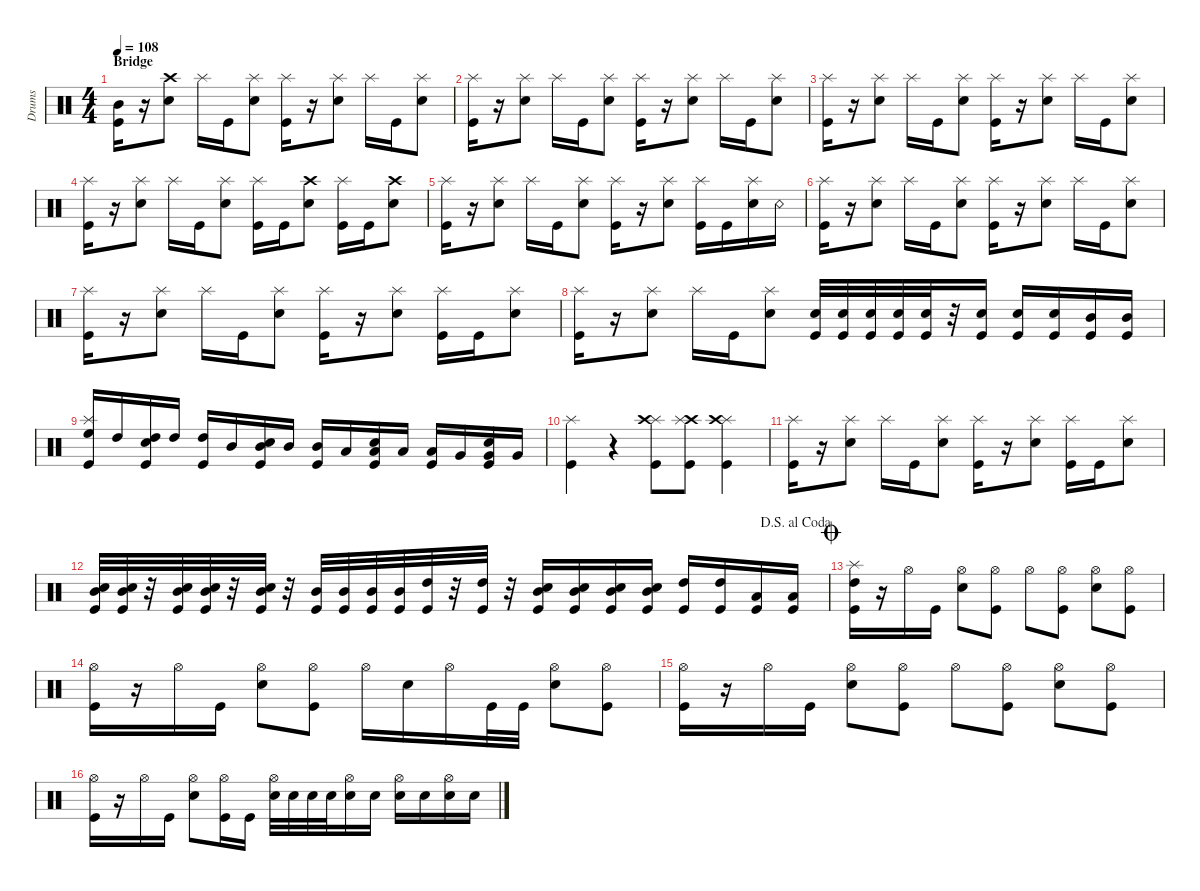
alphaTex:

\defaultSystemsLayout 4
\hideDynamics
\bracketExtendMode groupsimilarinstruments
\otherSystemsTrackNameOrientation horizontal
\chordDiagramsInScore
\track ("Drumkit" "Drums") {instrument percussion}
\staff {score}
\articulation defaults
\ts (4 4)
\section ("" "Bridge")
\tempo 108
\clef neutral
\ks c
("Kick (hit)" "Mid Tom (hit)").16{dy mf} r.16 ("Snare (hit) 2" "Crash high (hit)").8 "Splash (hit)".16 "Kick (hit)".16 ("Snare (hit) 2" "Splash (hit)").8 ("Kick (hit)" "Splash (hit)").16 r.16 ("Snare (hit) 2" "Splash (hit)").8 "Splash (hit)".16 "Kick (hit)".16 ("Snare (hit) 2" "Splash (hit)").8 |
("Kick (hit)" "Splash (hit)").16 r.16 ("Snare (hit) 2" "Splash (hit)").8 "Splash (hit)".16 "Kick (hit)".16 ("Snare (hit) 2" "Splash (hit)").8 ("Kick (hit)" "Splash (hit)").16 r.16 ("Snare (hit) 2" "Splash (hit)").8 "Splash (hit)".16 "Kick (hit)".16 ("Snare (hit) 2" "Splash (hit)").8 |
("Kick (hit)" "Splash (hit)").16 r.16 ("Snare (hit) 2" "Splash (hit)").8 "Splash (hit)".16 "Kick (hit)".16 ("Snare (hit) 2" "Splash (hit)").8 ("Kick (hit)" "Splash (hit)").16 r.16 ("Snare (hit) 2" "Splash (hit)").8 "Splash (hit)".16 "Kick (hit)".16 ("Snare (hit) 2" "Splash (hit)").8 |
("Kick (hit)" "Splash (hit)").16 r.16 ("Snare (hit) 2" "Splash (hit)").8 "Splash (hit)".16 "Kick (hit)".16 ("Snare (hit) 2" "Splash (hit)").8 ("Kick (hit)" "Splash (hit)").16 "Kick (hit)".16 ("Snare (hit) 2" "Crash high (hit)").8 ("Splash (hit)" "Kick (hit)").16 "Kick (hit)".16 ("Snare (hit) 2" "Crash high (hit)").8 |
("Kick (hit)" "Splash (hit)").16 r.16 ("Snare (hit) 2" "Splash (hit)").8 "Splash (hit)".16 "Kick (hit)".16 ("Snare (hit) 2" "Splash (hit)").8 ("Kick (hit)" "Splash (hit)").16 r.16 ("Snare (hit) 2" "Splash (hit)").8 ("Splash (hit)" "Kick (hit)").16 "Kick (hit)".16 ("Snare (hit) 2" "Splash (hit)").16 "Snare (rim shot)".16 |
("Kick (hit)" "Splash (hit)").16 r.16 ("Snare (hit) 2" "Splash (hit)").8 "Splash (hit)".16 "Kick (hit)".16 ("Snare (hit) 2" "Splash (hit)").8 ("Kick (hit)" "Splash (hit)").16 r.16 ("Snare (hit) 2" "Splash (hit)").8 "Splash (hit)".16 "Kick (hit)".16 ("Snare (hit) 2" "Splash (hit)").8 |
("Kick (hit)" "Splash (hit)").16 r.16 ("Snare (hit) 2" "Splash (hit)").8 "Splash (hit)".16 "Kick (hit)".16 ("Snare (hit) 2" "Splash (hit)").8 ("Kick (hit)" "Splash (hit)").16 r.16 ("Snare (hit) 2" "Splash (hit)").8 ("Splash (hit)" "Kick (hit)").16 "Kick (hit)".16 ("Snare (hit) 2" "Splash (hit)").8 |
("Kick (hit)" "Splash (hit)").16 r.16 ("Snare (hit) 2" "Splash (hit)").8 "Splash (hit)".16 "Kick (hit)".16 ("Snare (hit) 2" "Splash (hit)").8 ("Kick (hit)" "Snare (hit) 2").32 ("Kick (hit)" "Snare (hit) 2").32 ("Kick (hit)" "Snare (hit) 2").32 ("Kick (hit)" "Snare (hit) 2").32 ("Kick (hit)" "Snare (hit) 2").32 r.32 ("Kick (hit)" "Snare (hit) 2").16 ("Kick (hit)" "Snare (hit) 2").16 ("Kick (hit)" "Snare (hit) 2").16 ("Kick (hit)" "Mid Tom (hit)").16 ("Kick (hit)" "Mid Tom (hit)").16 |
("High Floor Tom (hit)" "Kick (hit)" "Splash (hit)").16 "High Tom (hit)".16 ("High Tom (hit)" "Kick (hit)" "Snare (hit) 2").16 "High Tom (hit)".16 ("High Tom (hit)" "Kick (hit)").16 "Mid Tom (hit)".16 ("Mid Tom (hit)" "Kick (hit)" "Snare (hit) 2").16 "Mid Tom (hit)".16 ("Mid Tom (hit)" "Kick (hit)").16 "Low Tom (hit)".16 ("Low Tom (hit)" "Kick (hit)" "Snare (hit) 2").16 "Low Tom (hit)".16 ("Low Tom (hit)" "Kick (hit)").16 "Very Low Tom (hit)".16 ("Very Low Tom (hit)" "Kick (hit)" "Snare (hit) 2").16 "Very Low Tom (hit)".16 |
("Splash (hit)" "Kick (hit)").4 r.4 ("Kick (hit)" "Splash (hit)" "Crash high (hit)").8 ("Kick (hit)" "Crash high (hit)" "Splash (hit)").8 ("Kick (hit)" "Splash (hit)" "Crash high (hit)").4 |
("Kick (hit)" "Splash (hit)").16 r.16 ("Snare (hit) 2" "Splash (hit)").8 "Splash (hit)".16 "Kick (hit)".16 ("Snare (hit) 2" "Splash (hit)").8 ("Kick (hit)" "Splash (hit)").16 r.16 ("Snare (hit) 2" "Splash (hit)").8 ("Splash (hit)" "Kick (hit)").16 "Kick (hit)".16 ("Snare (hit) 2" "Splash (hit)").8 |
\jump dalsegnoalcoda
("Kick (hit)" "Mid Tom (hit)" "Snare (hit) 2").32 ("Kick (hit)" "Mid Tom (hit)" "Snare (hit) 2").32 r.32 ("Kick (hit)" "Mid Tom (hit)" "Snare (hit) 2").32 ("Kick (hit)" "Mid Tom (hit)" "Snare (hit) 2").32 r.32 ("Kick (hit)" "Mid Tom (hit)" "Snare (hit) 2").32 r.32 ("Kick (hit)" "Mid Tom (hit)").32 ("Kick (hit)" "Mid Tom (hit)").32 ("Kick (hit)" "Mid Tom (hit)").32 ("Kick (hit)" "Mid Tom (hit)").32 ("Kick (hit)" "High Tom (hit)").32 r.32 ("Kick (hit)" "High Tom (hit)").32 r.32 ("Kick (hit)" "Mid Tom (hit)" "Snare (hit) 2").16 ("Kick (hit)" "Mid Tom (hit)" "Snare (hit) 2").16 ("Kick (hit)" "Mid Tom (hit)" "Snare (hit) 2").16 ("Kick (hit)" "Mid Tom (hit)" "Snare (hit) 2").16 ("Kick (hit)" "High Tom (hit)").16 ("Kick (hit)" "High Tom (hit)").16 ("Kick (hit)" "Low Tom (hit)").16 ("Kick (hit)" "Low Tom (hit)").16 |
\jump coda
("Kick (hit)" "High Tom (hit)" "Splash (hit)").16 r.16 "Hi-Hat (open)".16 "Kick (hit)".16 ("Snare (hit) 2" "Hi-Hat (open)").8 ("Kick (hit)" "Hi-Hat (open)").8 "Hi-Hat (open)".8 ("Kick (hit)" "Hi-Hat (open)").8 ("Snare (hit) 2" "Hi-Hat (open)").8 ("Kick (hit)" "Hi-Hat (open)").8 |
("Kick (hit)" "Hi-Hat (open)").16 r.16 "Hi-Hat (open)".16 "Kick (hit)".16 ("Snare (hit) 2" "Hi-Hat (open)").8 ("Kick (hit)" "Hi-Hat (open)").8 "Hi-Hat (open)".16 "Snare (hit) 2".16 "Hi-Hat (open)".16 "Kick (hit)".32 "Kick (hit)".32 ("Hi-Hat (open)" "Snare (hit) 2").8 ("Kick (hit)" "Hi-Hat (open)").8 |
("Kick (hit)" "Hi-Hat (open)").16 r.16 "Hi-Hat (open)".16 "Kick (hit)".16 ("Snare (hit) 2" "Hi-Hat (open)").8 ("Kick (hit)" "Hi-Hat (open)").8 "Hi-Hat (open)".8 ("Kick (hit)" "Hi-Hat (open)").8 ("Snare (hit) 2" "Hi-Hat (open)").8 ("Kick (hit)" "Hi-Hat (open)").8 |
("Kick (hit)" "Hi-Hat (open)").16 r.16 "Hi-Hat (open)".16 "Kick (hit)".16 ("Snare (hit) 2" "Hi-Hat (open)").8 ("Kick (hit)" "Hi-Hat (open)").16 "Kick (hit)".16 ("Snare (hit) 2" "Hi-Hat (open)").32 "Snare (hit) 2".32 "Snare (hit) 2".32 "Snare (hit) 2".32 ("Snare (hit) 2" "Hi-Hat (open)").16 "Snare (hit) 2".16 ("Snare (hit) 2" "Hi-Hat (open)").16 "Snare (hit) 2".16 ("Snare (hit) 2" "Hi-Hat (open)").16 "Snare (hit) 2".16
